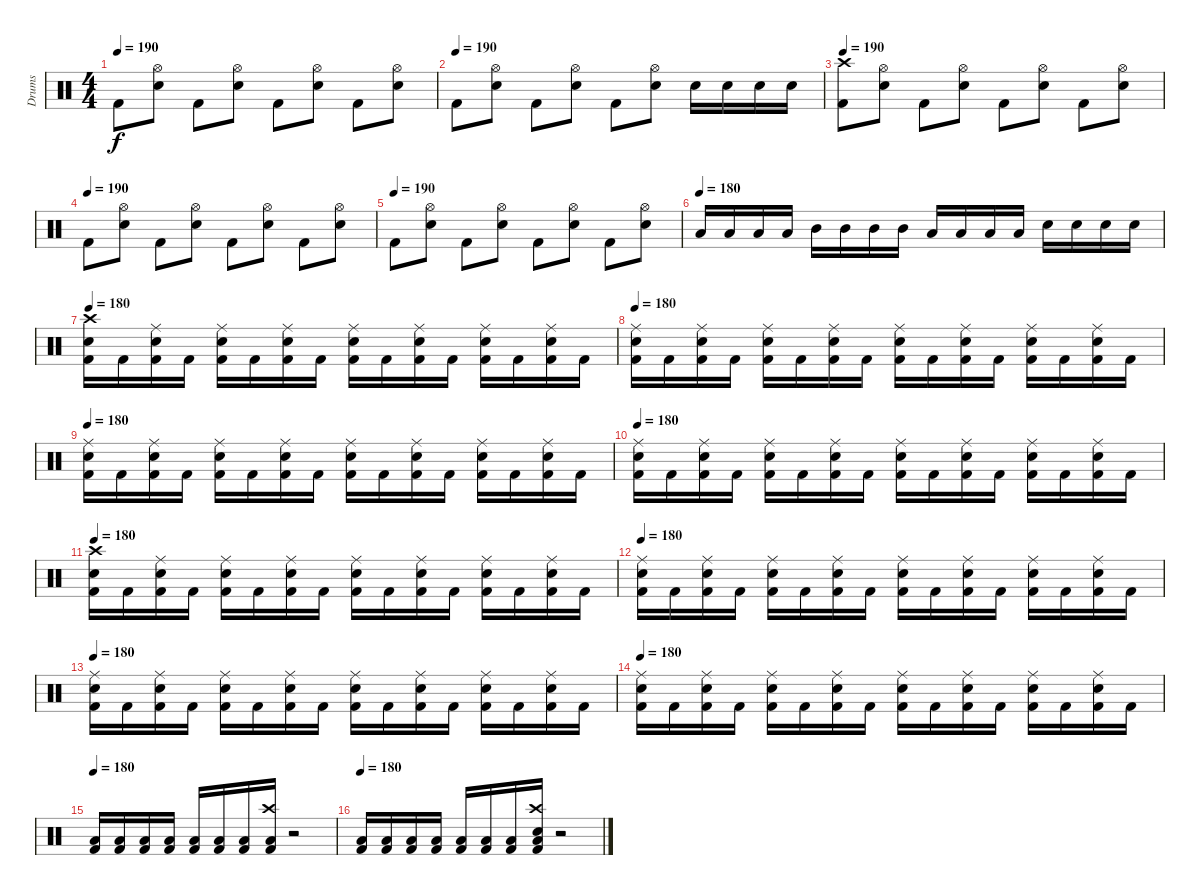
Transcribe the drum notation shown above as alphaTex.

\track ("Drums" "Drums") {instrument percussion}
\staff {score}
\articulation defaults
\ts (4 4)
\tempo 190
\clef neutral
\ks c "Kick (hit) 2".8{dy f}
("Hi-Hat (open)" "Snare (hit) 2").8 "Kick (hit) 2".8 ("Hi-Hat (open)" "Snare (hit) 2").8 "Kick (hit) 2".8 ("Hi-Hat (open)" "Snare (hit) 2").8 "Kick (hit) 2".8 ("Hi-Hat (open)" "Snare (hit) 2").8 |
\tempo (190)
"Kick (hit) 2".8 ("Hi-Hat (open)" "Snare (hit) 2").8 "Kick (hit) 2".8 ("Hi-Hat (open)" "Snare (hit) 2").8 "Kick (hit) 2".8 ("Hi-Hat (open)" "Snare (hit) 2").8 "Snare (hit) 2".16 "Snare (hit) 2".16 "Snare (hit) 2".16 "Snare (hit) 2".16 |
\tempo 190
("Crash high (hit)" "Kick (hit) 2").8 ("Hi-Hat (open)" "Snare (hit) 2").8 "Kick (hit) 2".8 ("Hi-Hat (open)" "Snare (hit) 2").8 "Kick (hit) 2".8 ("Hi-Hat (open)" "Snare (hit) 2").8 "Kick (hit) 2".8 ("Hi-Hat (open)" "Snare (hit) 2").8 |
\tempo (190)
"Kick (hit) 2".8 ("Hi-Hat (open)" "Snare (hit) 2").8 "Kick (hit) 2".8 ("Hi-Hat (open)" "Snare (hit) 2").8 "Kick (hit) 2".8 ("Hi-Hat (open)" "Snare (hit) 2").8 "Kick (hit) 2".8 ("Hi-Hat (open)" "Snare (hit) 2").8 |
\tempo (190)
"Kick (hit) 2".8 ("Hi-Hat (open)" "Snare (hit) 2").8 "Kick (hit) 2".8 ("Hi-Hat (open)" "Snare (hit) 2").8 "Kick (hit) 2".8 ("Hi-Hat (open)" "Snare (hit) 2").8 "Kick (hit) 2".8 ("Hi-Hat (open)" "Snare (hit) 2").8 |
\tempo (180)
"Low Floor Tom (hit)".16 "Low Floor Tom (hit)".16 "Low Floor Tom (hit)".16 "Low Floor Tom (hit)".16 "Mid Tom (hit)".16 "Mid Tom (hit)".16 "Mid Tom (hit)".16 "Mid Tom (hit)".16 "Low Tom (hit)".16 "Low Tom (hit)".16 "Low Tom (hit)".16 "Low Tom (hit)".16 "Snare (hit) 2".16 "Snare (hit) 2".16 "Snare (hit) 2".16 "Snare (hit) 2".16 |
\tempo 180
("Crash high (hit)" "Snare (hit) 2" "Kick (hit) 2").16 "Kick (hit) 2".16 ("Ride (middle)" "Snare (hit) 2" "Kick (hit) 2").16 "Kick (hit) 2".16 ("Ride (middle)" "Snare (hit) 2" "Kick (hit) 2").16 "Kick (hit) 2".16 ("Ride (middle)" "Snare (hit) 2" "Kick (hit) 2").16 "Kick (hit) 2".16 ("Ride (middle)" "Snare (hit) 2" "Kick (hit) 2").16 "Kick (hit) 2".16 ("Ride (middle)" "Snare (hit) 2" "Kick (hit) 2").16 "Kick (hit) 2".16 ("Ride (middle)" "Snare (hit) 2" "Kick (hit) 2").16 "Kick (hit) 2".16 ("Ride (middle)" "Snare (hit) 2" "Kick (hit) 2").16 "Kick (hit) 2".16 |
\tempo 180
("Ride (middle)" "Snare (hit) 2" "Kick (hit) 2").16 "Kick (hit) 2".16 ("Ride (middle)" "Snare (hit) 2" "Kick (hit) 2").16 "Kick (hit) 2".16 ("Ride (middle)" "Snare (hit) 2" "Kick (hit) 2").16 "Kick (hit) 2".16 ("Ride (middle)" "Snare (hit) 2" "Kick (hit) 2").16 "Kick (hit) 2".16 ("Ride (middle)" "Snare (hit) 2" "Kick (hit) 2").16 "Kick (hit) 2".16 ("Ride (middle)" "Snare (hit) 2" "Kick (hit) 2").16 "Kick (hit) 2".16 ("Ride (middle)" "Snare (hit) 2" "Kick (hit) 2").16 "Kick (hit) 2".16 ("Ride (middle)" "Snare (hit) 2" "Kick (hit) 2").16 "Kick (hit) 2".16 |
\tempo 180
("Ride (middle)" "Snare (hit) 2" "Kick (hit) 2").16 "Kick (hit) 2".16 ("Ride (middle)" "Snare (hit) 2" "Kick (hit) 2").16 "Kick (hit) 2".16 ("Ride (middle)" "Snare (hit) 2" "Kick (hit) 2").16 "Kick (hit) 2".16 ("Ride (middle)" "Snare (hit) 2" "Kick (hit) 2").16 "Kick (hit) 2".16 ("Ride (middle)" "Snare (hit) 2" "Kick (hit) 2").16 "Kick (hit) 2".16 ("Ride (middle)" "Snare (hit) 2" "Kick (hit) 2").16 "Kick (hit) 2".16 ("Ride (middle)" "Snare (hit) 2" "Kick (hit) 2").16 "Kick (hit) 2".16 ("Ride (middle)" "Snare (hit) 2" "Kick (hit) 2").16 "Kick (hit) 2".16 |
\tempo 180
("Ride (middle)" "Snare (hit) 2" "Kick (hit) 2").16 "Kick (hit) 2".16 ("Ride (middle)" "Snare (hit) 2" "Kick (hit) 2").16 "Kick (hit) 2".16 ("Ride (middle)" "Snare (hit) 2" "Kick (hit) 2").16 "Kick (hit) 2".16 ("Ride (middle)" "Snare (hit) 2" "Kick (hit) 2").16 "Kick (hit) 2".16 ("Ride (middle)" "Snare (hit) 2" "Kick (hit) 2").16 "Kick (hit) 2".16 ("Ride (middle)" "Snare (hit) 2" "Kick (hit) 2").16 "Kick (hit) 2".16 ("Ride (middle)" "Snare (hit) 2" "Kick (hit) 2").16 "Kick (hit) 2".16 ("Ride (middle)" "Snare (hit) 2" "Kick (hit) 2").16 "Kick (hit) 2".16 |
\tempo 180
("Crash high (hit)" "Snare (hit) 2" "Kick (hit) 2").16 "Kick (hit) 2".16 ("Ride (middle)" "Snare (hit) 2" "Kick (hit) 2").16 "Kick (hit) 2".16 ("Ride (middle)" "Snare (hit) 2" "Kick (hit) 2").16 "Kick (hit) 2".16 ("Ride (middle)" "Snare (hit) 2" "Kick (hit) 2").16 "Kick (hit) 2".16 ("Ride (middle)" "Snare (hit) 2" "Kick (hit) 2").16 "Kick (hit) 2".16 ("Ride (middle)" "Snare (hit) 2" "Kick (hit) 2").16 "Kick (hit) 2".16 ("Ride (middle)" "Snare (hit) 2" "Kick (hit) 2").16 "Kick (hit) 2".16 ("Ride (middle)" "Snare (hit) 2" "Kick (hit) 2").16 "Kick (hit) 2".16 |
\tempo 180
("Ride (middle)" "Snare (hit) 2" "Kick (hit) 2").16 "Kick (hit) 2".16 ("Ride (middle)" "Snare (hit) 2" "Kick (hit) 2").16 "Kick (hit) 2".16 ("Ride (middle)" "Snare (hit) 2" "Kick (hit) 2").16 "Kick (hit) 2".16 ("Ride (middle)" "Snare (hit) 2" "Kick (hit) 2").16 "Kick (hit) 2".16 ("Ride (middle)" "Snare (hit) 2" "Kick (hit) 2").16 "Kick (hit) 2".16 ("Ride (middle)" "Snare (hit) 2" "Kick (hit) 2").16 "Kick (hit) 2".16 ("Ride (middle)" "Snare (hit) 2" "Kick (hit) 2").16 "Kick (hit) 2".16 ("Ride (middle)" "Snare (hit) 2" "Kick (hit) 2").16 "Kick (hit) 2".16 |
\tempo 180
("Ride (middle)" "Snare (hit) 2" "Kick (hit) 2").16 "Kick (hit) 2".16 ("Ride (middle)" "Snare (hit) 2" "Kick (hit) 2").16 "Kick (hit) 2".16 ("Ride (middle)" "Snare (hit) 2" "Kick (hit) 2").16 "Kick (hit) 2".16 ("Ride (middle)" "Snare (hit) 2" "Kick (hit) 2").16 "Kick (hit) 2".16 ("Ride (middle)" "Snare (hit) 2" "Kick (hit) 2").16 "Kick (hit) 2".16 ("Ride (middle)" "Snare (hit) 2" "Kick (hit) 2").16 "Kick (hit) 2".16 ("Ride (middle)" "Snare (hit) 2" "Kick (hit) 2").16 "Kick (hit) 2".16 ("Ride (middle)" "Snare (hit) 2" "Kick (hit) 2").16 "Kick (hit) 2".16 |
\tempo 180
("Ride (middle)" "Snare (hit) 2" "Kick (hit) 2").16 "Kick (hit) 2".16 ("Ride (middle)" "Snare (hit) 2" "Kick (hit) 2").16 "Kick (hit) 2".16 ("Ride (middle)" "Snare (hit) 2" "Kick (hit) 2").16 "Kick (hit) 2".16 ("Ride (middle)" "Snare (hit) 2" "Kick (hit) 2").16 "Kick (hit) 2".16 ("Ride (middle)" "Snare (hit) 2" "Kick (hit) 2").16 "Kick (hit) 2".16 ("Ride (middle)" "Snare (hit) 2" "Kick (hit) 2").16 "Kick (hit) 2".16 ("Ride (middle)" "Snare (hit) 2" "Kick (hit) 2").16 "Kick (hit) 2".16 ("Ride (middle)" "Snare (hit) 2" "Kick (hit) 2").16 "Kick (hit) 2".16 |
\tempo 180
("Low Tom (hit)" "Kick (hit) 2").16 ("Low Tom (hit)" "Kick (hit) 2").16 ("Low Tom (hit)" "Kick (hit) 2").16 ("Low Tom (hit)" "Kick (hit) 2").16 ("Low Tom (hit)" "Kick (hit) 2").16 ("Low Tom (hit)" "Kick (hit) 2").16 ("Low Tom (hit)" "Kick (hit) 2").16 ("Crash high (hit)" "Low Tom (hit)" "Kick (hit) 2").16 r.2 |
\tempo 180
("Low Tom (hit)" "Kick (hit) 2").16 ("Low Tom (hit)" "Kick (hit) 2").16 ("Low Tom (hit)" "Kick (hit) 2").16 ("Low Tom (hit)" "Kick (hit) 2").16 ("Low Tom (hit)" "Kick (hit) 2").16 ("Low Tom (hit)" "Kick (hit) 2").16 ("Low Tom (hit)" "Kick (hit) 2").16 ("Crash high (hit)" "Snare (hit) 2" "Low Tom (hit)" "Kick (hit) 2").16 r.2
